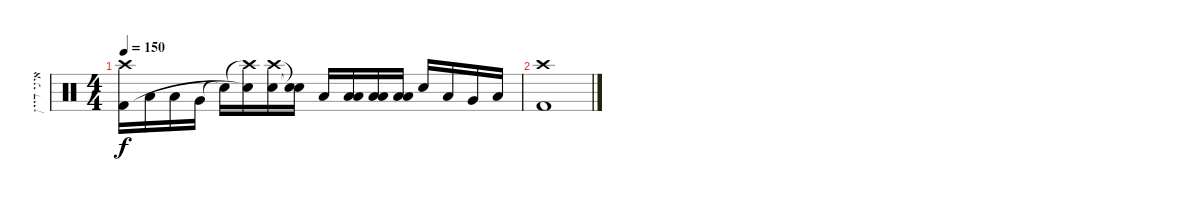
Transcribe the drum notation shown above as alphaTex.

\track ("איגי דיין" "איגי דיין") {instrument percussion}
\staff {score}
\articulation defaults
\ts (4 4)
\tempo 150
\clef neutral
\ks c
("Crash high (hit)" "Kick (hit) 2").16{dy f} "Low Tom (hit)".16 "Low Floor Tom (hit)".16 "Very Low Tom (hit)".16 "Snare (hit)"{t}.16 ("Crash high (hit)"{t} "Electric Snare (hit)"{t}).16 ("Crash high (hit)" "Electric Snare (hit)").16 ("Snare (hit)"{t} "Snare (hit)"{t}).16 "Low Tom (hit)".16 ("Low Floor Tom (hit)" "Low Tom (hit)").16 ("Low Floor Tom (hit)" "Low Tom (hit)").16 ("Low Floor Tom (hit)" "Low Tom (hit)").16 "Electric Snare (hit)".16 "Low Tom (hit)".16 "Very Low Tom (hit)".16 "Low Floor Tom (hit)".16 |
("Crash high (hit)" "Kick (hit) 2").1
